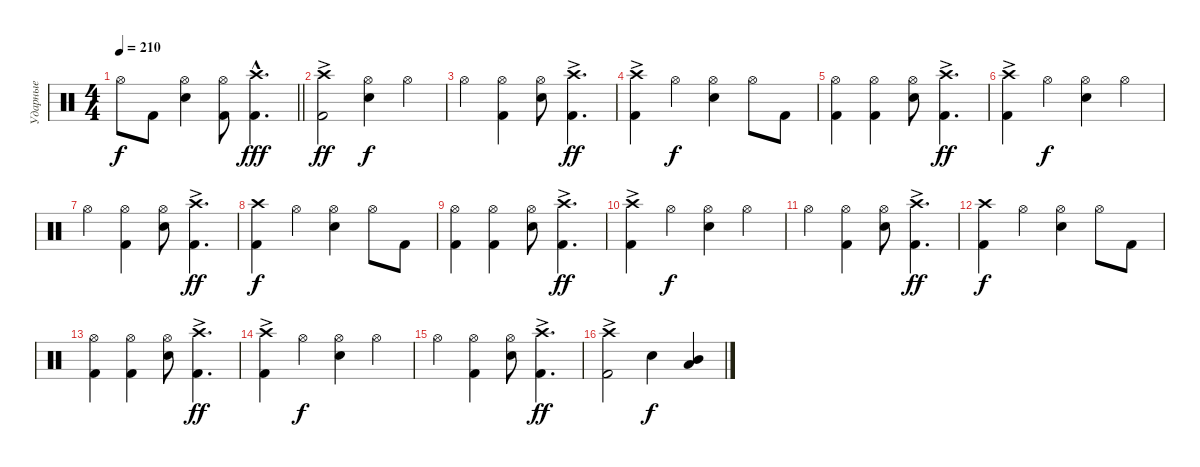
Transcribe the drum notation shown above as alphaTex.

\track ("Ударные" "Ударные") {instrument percussion}
\staff {score}
\articulation defaults
\ts (4 4)
\tempo 210
\clef neutral
\barLineRight lightlight
\ks c "Hi-Hat (open)".8{dy f} "Kick (hit) 2".8
("Hi-Hat (open)" "Snare (hit) 2").4 ("Hi-Hat (open)" "Kick (hit) 2").8 ("Crash high (hit)"{hac} "Kick (hit) 2").4{d dy fff} |
\section ("" "")
("Crash high (hit)"{ac} "Kick (hit) 2").2{dy ff} ("Hi-Hat (open)" "Snare (hit) 2").4{dy f} "Hi-Hat (open)".4 |
"Hi-Hat (open)".4 ("Hi-Hat (open)" "Kick (hit) 2").4 ("Hi-Hat (open)" "Snare (hit) 2").8 ("Crash high (hit)"{ac} "Kick (hit) 2").4{d dy ff} |
("Crash high (hit)"{ac} "Kick (hit) 2").4 "Hi-Hat (open)".4{dy f} ("Hi-Hat (open)" "Snare (hit) 2").4 "Hi-Hat (open)".8 "Kick (hit) 2".8 |
("Hi-Hat (open)" "Kick (hit) 2").4 ("Hi-Hat (open)" "Kick (hit) 2").4 ("Hi-Hat (open)" "Snare (hit) 2").8 ("Crash high (hit)"{ac} "Kick (hit) 2").4{d dy ff} |
("Crash high (hit)"{ac} "Kick (hit) 2").4 "Hi-Hat (open)".4{dy f} ("Hi-Hat (open)" "Snare (hit) 2").4 "Hi-Hat (open)".4 |
"Hi-Hat (open)".4 ("Hi-Hat (open)" "Kick (hit) 2").4 ("Hi-Hat (open)" "Snare (hit) 2").8 ("Crash high (hit)"{ac} "Kick (hit) 2").4{d dy ff} |
("Crash high (hit)" "Kick (hit) 2").4{dy f} "Hi-Hat (open)".4 ("Hi-Hat (open)" "Snare (hit) 2").4 "Hi-Hat (open)".8 "Kick (hit) 2".8 |
("Hi-Hat (open)" "Kick (hit) 2").4 ("Hi-Hat (open)" "Kick (hit) 2").4 ("Hi-Hat (open)" "Snare (hit) 2").8 ("Crash high (hit)"{ac} "Kick (hit) 2").4{d dy ff} |
("Crash high (hit)"{ac} "Kick (hit) 2").4 "Hi-Hat (open)".4{dy f} ("Hi-Hat (open)" "Snare (hit) 2").4 "Hi-Hat (open)".4 |
"Hi-Hat (open)".4 ("Hi-Hat (open)" "Kick (hit) 2").4 ("Hi-Hat (open)" "Snare (hit) 2").8 ("Crash high (hit)"{ac} "Kick (hit) 2").4{d dy ff} |
("Crash high (hit)" "Kick (hit) 2").4{dy f} "Hi-Hat (open)".4 ("Hi-Hat (open)" "Snare (hit) 2").4 "Hi-Hat (open)".8 "Kick (hit) 2".8 |
("Hi-Hat (open)" "Kick (hit) 2").4 ("Hi-Hat (open)" "Kick (hit) 2").4 ("Hi-Hat (open)" "Snare (hit) 2").8 ("Crash high (hit)"{ac} "Kick (hit) 2").4{d dy ff} |
("Crash high (hit)"{ac} "Kick (hit) 2").4 "Hi-Hat (open)".4{dy f} ("Hi-Hat (open)" "Snare (hit) 2").4 "Hi-Hat (open)".4 |
"Hi-Hat (open)".4 ("Hi-Hat (open)" "Kick (hit) 2").4 ("Hi-Hat (open)" "Snare (hit) 2").8 ("Crash high (hit)"{ac} "Kick (hit) 2").4{d dy ff} |
("Crash high (hit)"{ac} "Kick (hit) 2").2 "Snare (hit) 2".4{dy f} ("Mid Tom (hit)" "Low Tom (hit)").4
